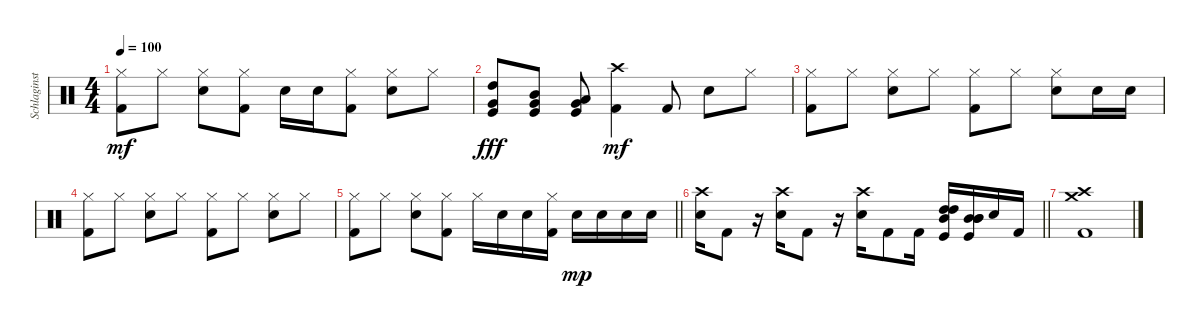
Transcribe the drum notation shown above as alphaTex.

\track ("Schlaginstrumente - Auswahl" "Schlaginst") {instrument percussion}
\staff {score}
\articulation defaults
\ts (4 4)
\tempo 100
\clef neutral
\ks c
("Hi-Hat (closed)" "Kick (hit) 2").8{dy mf} "Hi-Hat (closed)".8 ("Hi-Hat (closed)" "Snare (hit) 2").8 ("Hi-Hat (closed)" "Kick (hit) 2").8 "Snare (hit) 2".16 "Snare (hit) 2".16 ("Hi-Hat (closed)" "Kick (hit) 2").8 ("Hi-Hat (closed)" "Snare (hit) 2").8 "Hi-Hat (closed)".8 |
("Very Low Tom (hit)" "High Tom (hit)" "Kick (hit)").8{dy fff} ("Very Low Tom (hit)" "Mid Tom (hit)" "Kick (hit)").8 ("Very Low Tom (hit)" "Low Tom (hit)" "Kick (hit)").8 ("Crash high (hit)" "Kick (hit) 2").4{dy mf} "Kick (hit) 2".8 "Snare (hit) 2".8 "Hi-Hat (closed)".8 |
("Hi-Hat (closed)" "Kick (hit) 2").8 "Hi-Hat (closed)".8 ("Hi-Hat (closed)" "Snare (hit) 2").8 "Hi-Hat (closed)".8 ("Hi-Hat (closed)" "Kick (hit) 2").8 "Hi-Hat (closed)".8 ("Hi-Hat (closed)" "Snare (hit) 2").8 "Snare (hit) 2".16 "Snare (hit) 2".16 |
("Hi-Hat (closed)" "Kick (hit) 2").8 "Hi-Hat (closed)".8 ("Hi-Hat (closed)" "Snare (hit) 2").8 "Hi-Hat (closed)".8 ("Hi-Hat (closed)" "Kick (hit) 2").8 "Hi-Hat (closed)".8 ("Hi-Hat (closed)" "Snare (hit) 2").8 "Hi-Hat (closed)".8 |
\barLineRight lightlight
("Hi-Hat (closed)" "Kick (hit) 2").8 "Hi-Hat (closed)".8 ("Hi-Hat (closed)" "Snare (hit) 2").8 ("Hi-Hat (closed)" "Kick (hit) 2").8 "Hi-Hat (closed)".16 "Snare (hit) 2".16 "Snare (hit) 2".16 ("Hi-Hat (closed)" "Kick (hit) 2").16 "Snare (hit) 2".16{dy mp} "Snare (hit) 2".16 "Snare (hit) 2".16 "Snare (hit) 2".16 |
\barLineRight lightlight
("Snare (hit) 2" "Crash high (hit)").16 "Kick (hit) 2".8 r.16 ("Snare (hit) 2" "Crash high (hit)").16 "Kick (hit) 2".8 r.16 ("Snare (hit) 2" "Crash high (hit)").16 "Kick (hit) 2".8 "Kick (hit) 2".16 ("High Tom (hit)" "Mid Tom (hit)" "High Tom (hit)" "Kick (hit)").16 ("Mid Tom (hit)" "Mid Tom (hit)" "Mid Tom (hit)" "Kick (hit)").16 "Snare (hit) 2".16 "Kick (hit) 2".16 |
("Crash high (hit)" "Crash medium (hit)" "Kick (hit) 2").1
